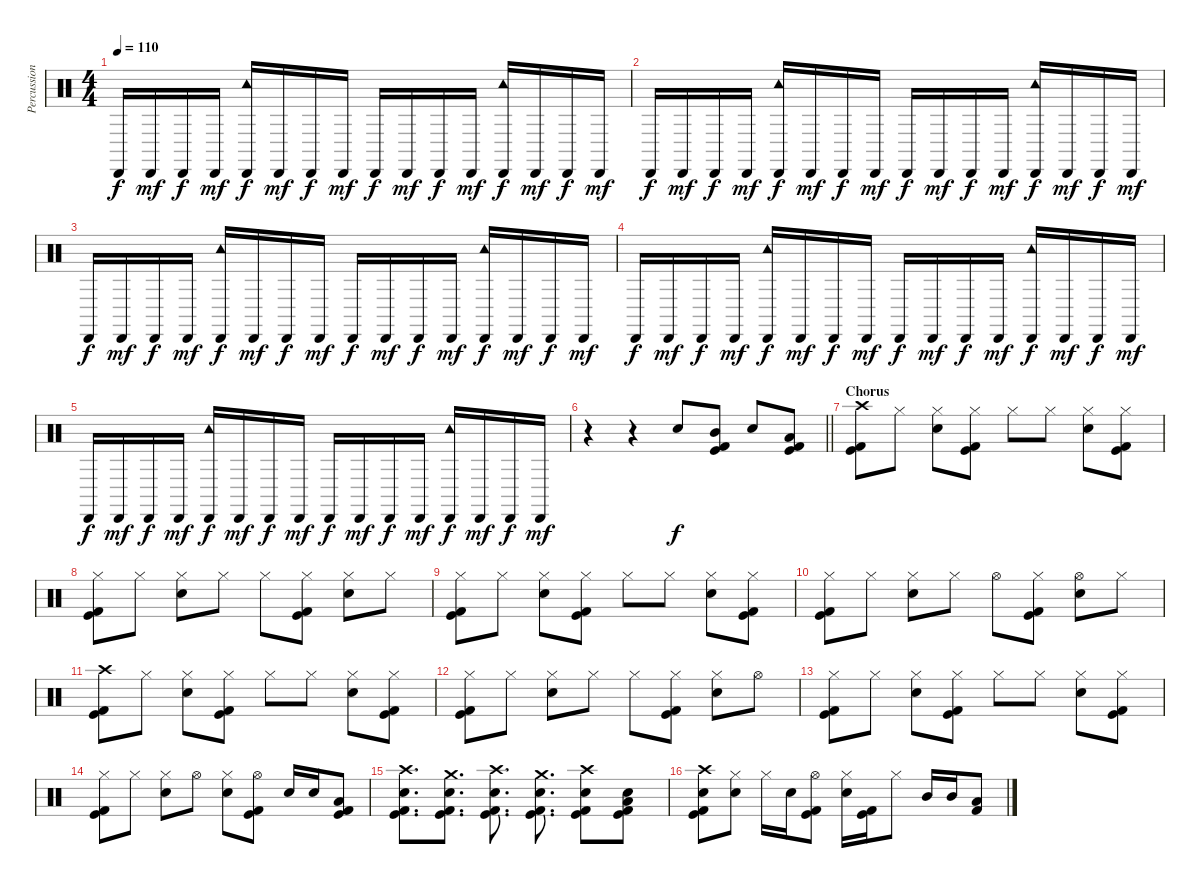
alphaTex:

\track ("Percussion" "Percussion") {instrument percussion}
\staff {score}
\articulation defaults
\ts (4 4)
\tempo 110
\clef neutral
\ks c "Cabasa (hit)".16{dy f} "Cabasa (hit)".16{dy mf} "Cabasa (hit)".16{dy f} "Cabasa (hit)".16{dy mf}
("Cabasa (hit)" "Tambourine (hit)").16{dy f} "Cabasa (hit)".16{dy mf} "Cabasa (hit)".16{dy f} "Cabasa (hit)".16{dy mf} "Cabasa (hit)".16{dy f} "Cabasa (hit)".16{dy mf} "Cabasa (hit)".16{dy f} "Cabasa (hit)".16{dy mf} ("Cabasa (hit)" "Tambourine (hit)").16{dy f} "Cabasa (hit)".16{dy mf} "Cabasa (hit)".16{dy f} "Cabasa (hit)".16{dy mf} |
"Cabasa (hit)".16{dy f} "Cabasa (hit)".16{dy mf} "Cabasa (hit)".16{dy f} "Cabasa (hit)".16{dy mf} ("Cabasa (hit)" "Tambourine (hit)").16{dy f} "Cabasa (hit)".16{dy mf} "Cabasa (hit)".16{dy f} "Cabasa (hit)".16{dy mf} "Cabasa (hit)".16{dy f} "Cabasa (hit)".16{dy mf} "Cabasa (hit)".16{dy f} "Cabasa (hit)".16{dy mf} ("Cabasa (hit)" "Tambourine (hit)").16{dy f} "Cabasa (hit)".16{dy mf} "Cabasa (hit)".16{dy f} "Cabasa (hit)".16{dy mf} |
"Cabasa (hit)".16{dy f} "Cabasa (hit)".16{dy mf} "Cabasa (hit)".16{dy f} "Cabasa (hit)".16{dy mf} ("Cabasa (hit)" "Tambourine (hit)").16{dy f} "Cabasa (hit)".16{dy mf} "Cabasa (hit)".16{dy f} "Cabasa (hit)".16{dy mf} "Cabasa (hit)".16{dy f} "Cabasa (hit)".16{dy mf} "Cabasa (hit)".16{dy f} "Cabasa (hit)".16{dy mf} ("Cabasa (hit)" "Tambourine (hit)").16{dy f} "Cabasa (hit)".16{dy mf} "Cabasa (hit)".16{dy f} "Cabasa (hit)".16{dy mf} |
"Cabasa (hit)".16{dy f} "Cabasa (hit)".16{dy mf} "Cabasa (hit)".16{dy f} "Cabasa (hit)".16{dy mf} ("Cabasa (hit)" "Tambourine (hit)").16{dy f} "Cabasa (hit)".16{dy mf} "Cabasa (hit)".16{dy f} "Cabasa (hit)".16{dy mf} "Cabasa (hit)".16{dy f} "Cabasa (hit)".16{dy mf} "Cabasa (hit)".16{dy f} "Cabasa (hit)".16{dy mf} ("Cabasa (hit)" "Tambourine (hit)").16{dy f} "Cabasa (hit)".16{dy mf} "Cabasa (hit)".16{dy f} "Cabasa (hit)".16{dy mf} |
"Cabasa (hit)".16{dy f} "Cabasa (hit)".16{dy mf} "Cabasa (hit)".16{dy f} "Cabasa (hit)".16{dy mf} ("Cabasa (hit)" "Tambourine (hit)").16{dy f} "Cabasa (hit)".16{dy mf} "Cabasa (hit)".16{dy f} "Cabasa (hit)".16{dy mf} "Cabasa (hit)".16{dy f} "Cabasa (hit)".16{dy mf} "Cabasa (hit)".16{dy f} "Cabasa (hit)".16{dy mf} ("Cabasa (hit)" "Tambourine (hit)").16{dy f} "Cabasa (hit)".16{dy mf} "Cabasa (hit)".16{dy f} "Cabasa (hit)".16{dy mf} |
\barLineRight lightlight
r.4 r.4 "Snare (hit) 2".8{dy f volume 15} ("Mid Tom (hit)" "Kick (hit)" "Kick (hit) 2").8 "Snare (hit) 2".8 ("Low Tom (hit)" "Kick (hit)" "Kick (hit) 2").8 |
\section ("" "Chorus")
("Crash high (hit)" "Kick (hit)" "Kick (hit) 2").8 "Hi-Hat (closed)".8 ("Hi-Hat (closed)" "Snare (hit) 2").8 ("Hi-Hat (closed)" "Kick (hit)" "Kick (hit) 2").8 "Hi-Hat (closed)".8 "Hi-Hat (closed)".8 ("Hi-Hat (closed)" "Snare (hit) 2").8 ("Hi-Hat (closed)" "Kick (hit)" "Kick (hit) 2").8 |
("Hi-Hat (closed)" "Kick (hit)" "Kick (hit) 2").8 "Hi-Hat (closed)".8 ("Hi-Hat (closed)" "Snare (hit) 2").8 "Hi-Hat (closed)".8 "Hi-Hat (closed)".8 ("Hi-Hat (closed)" "Kick (hit)" "Kick (hit) 2").8 ("Hi-Hat (closed)" "Snare (hit) 2").8 "Hi-Hat (closed)".8 |
("Hi-Hat (closed)" "Kick (hit)" "Kick (hit) 2").8 "Hi-Hat (closed)".8 ("Hi-Hat (closed)" "Snare (hit) 2").8 ("Hi-Hat (closed)" "Kick (hit)" "Kick (hit) 2").8 "Hi-Hat (closed)".8 "Hi-Hat (closed)".8 ("Hi-Hat (closed)" "Snare (hit) 2").8 ("Hi-Hat (closed)" "Kick (hit)" "Kick (hit) 2").8 |
("Hi-Hat (closed)" "Kick (hit)" "Kick (hit) 2").8 "Hi-Hat (closed)".8 ("Hi-Hat (closed)" "Snare (hit) 2").8 "Hi-Hat (closed)".8 "Hi-Hat (open)".8 ("Hi-Hat (closed)" "Kick (hit)" "Kick (hit) 2").8 ("Hi-Hat (open)" "Snare (hit) 2").8 "Hi-Hat (closed)".8 |
("Crash high (hit)" "Kick (hit)" "Kick (hit) 2").8 "Hi-Hat (closed)".8 ("Hi-Hat (closed)" "Snare (hit) 2").8 ("Hi-Hat (closed)" "Kick (hit)" "Kick (hit) 2").8 "Hi-Hat (closed)".8 "Hi-Hat (closed)".8 ("Hi-Hat (closed)" "Snare (hit) 2").8 ("Hi-Hat (closed)" "Kick (hit)" "Kick (hit) 2").8 |
("Hi-Hat (closed)" "Kick (hit)" "Kick (hit) 2").8 "Hi-Hat (closed)".8 ("Hi-Hat (closed)" "Snare (hit) 2").8 "Hi-Hat (closed)".8 "Hi-Hat (closed)".8 ("Hi-Hat (closed)" "Kick (hit)" "Kick (hit) 2").8 ("Hi-Hat (closed)" "Snare (hit) 2").8 "Hi-Hat (open)".8 |
("Hi-Hat (closed)" "Kick (hit)" "Kick (hit) 2").8 "Hi-Hat (closed)".8 ("Hi-Hat (closed)" "Snare (hit) 2").8 ("Hi-Hat (closed)" "Kick (hit)" "Kick (hit) 2").8 "Hi-Hat (closed)".8 "Hi-Hat (closed)".8 ("Hi-Hat (closed)" "Snare (hit) 2").8 ("Hi-Hat (closed)" "Kick (hit)" "Kick (hit) 2").8 |
("Hi-Hat (closed)" "Kick (hit)" "Kick (hit) 2").8 "Hi-Hat (closed)".8 ("Hi-Hat (closed)" "Snare (hit) 2").8 "Hi-Hat (open)".8 ("Hi-Hat (closed)" "Snare (hit) 2").8 ("Hi-Hat (open)" "Kick (hit)" "Kick (hit) 2").8 "Snare (hit) 2".16 "Snare (hit) 2".16 ("Low Tom (hit)" "Kick (hit)" "Kick (hit) 2").8 |
("Crash high (hit)" "Snare (hit) 2" "Kick (hit)" "Kick (hit) 2").8{d} ("Crash medium (hit)" "Snare (hit) 2" "Kick (hit)" "Kick (hit) 2").8{d} ("Crash high (hit)" "Snare (hit) 2" "Kick (hit)" "Kick (hit) 2").8{d} ("Crash medium (hit)" "Snare (hit) 2" "Kick (hit)" "Kick (hit) 2").8{d} ("Crash high (hit)" "Snare (hit) 2" "Kick (hit)" "Kick (hit) 2").8 ("Low Tom (hit)" "Snare (hit) 2" "Kick (hit)" "Kick (hit) 2").8 |
("Crash high (hit)" "Snare (hit) 2" "Kick (hit)" "Kick (hit) 2").8 ("Hi-Hat (closed)" "Snare (hit) 2").8 "Hi-Hat (closed)".16 "Snare (hit) 2".16 ("Hi-Hat (open)" "Kick (hit)" "Kick (hit) 2").8 ("Hi-Hat (closed)" "Snare (hit) 2").16 ("Kick (hit)" "Kick (hit) 2").16 "Hi-Hat (closed)".8 "Mid Tom (hit)".16 "Mid Tom (hit)".16 ("Low Tom (hit)" "Kick (hit) 2").8
